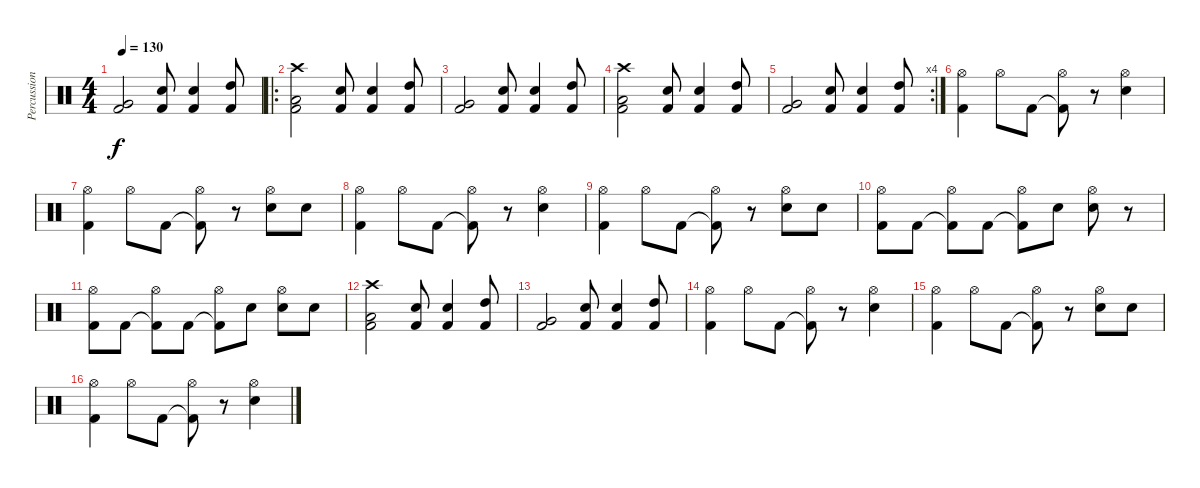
\track ("Percussioni" "Percussion") {instrument percussion}
\staff {score}
\articulation defaults
\ts (4 4)
\tempo 130
\clef neutral
\ks c
("Kick (hit) 2" "Very Low Tom (hit)").2{dy f} ("Snare (hit) 2" "Kick (hit) 2").8 ("Snare (hit) 2" "Kick (hit) 2").4 ("High Tom (hit)" "Kick (hit) 2").8 |
\ro
("Kick (hit) 2" "Low Tom (hit)" "Crash high (hit)").2 ("Snare (hit) 2" "Kick (hit) 2").8 ("Snare (hit) 2" "Kick (hit) 2").4 ("High Tom (hit)" "Kick (hit) 2").8 |
("Kick (hit) 2" "Very Low Tom (hit)").2 ("Snare (hit) 2" "Kick (hit) 2").8 ("Snare (hit) 2" "Kick (hit) 2").4 ("High Tom (hit)" "Kick (hit) 2").8 |
("Kick (hit) 2" "Low Tom (hit)" "Crash high (hit)").2 ("Snare (hit) 2" "Kick (hit) 2").8 ("Snare (hit) 2" "Kick (hit) 2").4 ("High Tom (hit)" "Kick (hit) 2").8 |
\rc 4
("Kick (hit) 2" "Very Low Tom (hit)").2 ("Snare (hit) 2" "Kick (hit) 2").8 ("Snare (hit) 2" "Kick (hit) 2").4 ("High Tom (hit)" "Kick (hit) 2").8 |
("Kick (hit) 2" "Hi-Hat (open)").4 "Hi-Hat (open)".8 "Kick (hit) 2".8 ("Kick (hit) 2"{t} "Hi-Hat (open)").8 r.8 ("Snare (hit) 2" "Hi-Hat (open)").4 |
("Kick (hit) 2" "Hi-Hat (open)").4 "Hi-Hat (open)".8 "Kick (hit) 2".8 ("Kick (hit) 2"{t} "Hi-Hat (open)").8 r.8 ("Snare (hit) 2" "Hi-Hat (open)").8 "Snare (hit) 2".8 |
("Kick (hit) 2" "Hi-Hat (open)").4 "Hi-Hat (open)".8 "Kick (hit) 2".8 ("Kick (hit) 2"{t} "Hi-Hat (open)").8 r.8 ("Snare (hit) 2" "Hi-Hat (open)").4 |
("Kick (hit) 2" "Hi-Hat (open)").4 "Hi-Hat (open)".8 "Kick (hit) 2".8 ("Kick (hit) 2"{t} "Hi-Hat (open)").8 r.8 ("Snare (hit) 2" "Hi-Hat (open)").8 "Snare (hit) 2".8 |
("Kick (hit) 2" "Hi-Hat (open)").8 "Kick (hit) 2".8 ("Kick (hit) 2"{t} "Hi-Hat (open)").8 "Kick (hit) 2".8 ("Kick (hit) 2"{t} "Hi-Hat (open)").8 "Snare (hit) 2".8 ("Snare (hit) 2" "Hi-Hat (open)").8 r.8 |
("Kick (hit) 2" "Hi-Hat (open)").8 "Kick (hit) 2".8 ("Kick (hit) 2"{t} "Hi-Hat (open)").8 "Kick (hit) 2".8 ("Kick (hit) 2"{t} "Hi-Hat (open)").8 "Snare (hit) 2".8 ("Snare (hit) 2" "Hi-Hat (open)").8 "Snare (hit) 2".8 |
("Kick (hit) 2" "Low Tom (hit)" "Crash high (hit)").2 ("Snare (hit) 2" "Kick (hit) 2").8 ("Snare (hit) 2" "Kick (hit) 2").4 ("High Tom (hit)" "Kick (hit) 2").8 |
("Kick (hit) 2" "Very Low Tom (hit)").2 ("Snare (hit) 2" "Kick (hit) 2").8 ("Snare (hit) 2" "Kick (hit) 2").4 ("High Tom (hit)" "Kick (hit) 2").8 |
("Kick (hit) 2" "Hi-Hat (open)").4 "Hi-Hat (open)".8 "Kick (hit) 2".8 ("Kick (hit) 2"{t} "Hi-Hat (open)").8 r.8 ("Snare (hit) 2" "Hi-Hat (open)").4 |
("Kick (hit) 2" "Hi-Hat (open)").4 "Hi-Hat (open)".8 "Kick (hit) 2".8 ("Kick (hit) 2"{t} "Hi-Hat (open)").8 r.8 ("Snare (hit) 2" "Hi-Hat (open)").8 "Snare (hit) 2".8 |
("Kick (hit) 2" "Hi-Hat (open)").4 "Hi-Hat (open)".8 "Kick (hit) 2".8 ("Kick (hit) 2"{t} "Hi-Hat (open)").8 r.8 ("Snare (hit) 2" "Hi-Hat (open)").4
